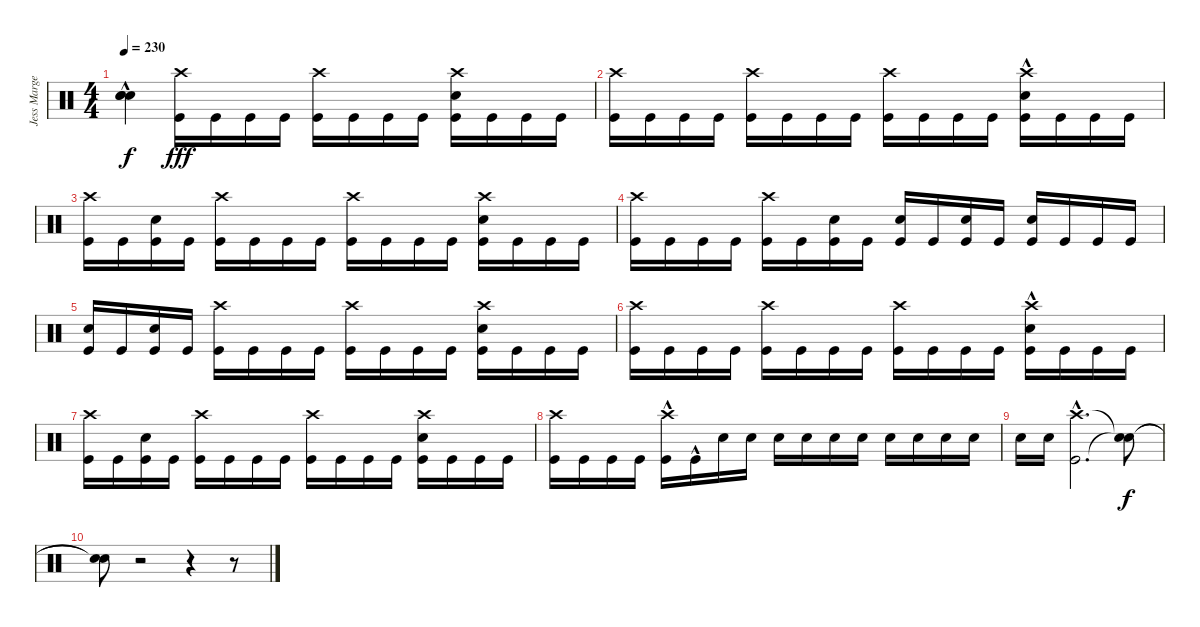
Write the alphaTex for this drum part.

\track ("Jess Margera (drums)" "Jess Marge") {instrument percussion}
\staff {score}
\articulation defaults
\ts (4 4)
\tempo 230
\clef neutral
\ks c
("Snare (hit)"{t} "Snare (hit)"{hac t} "Snare (hit)"{t}).4{dy f} ("Kick (hit)" "Crash high (hit)").16{dy fff} "Kick (hit)".16 "Kick (hit)".16 "Kick (hit)".16 ("Kick (hit)" "Crash high (hit)").16 "Kick (hit)".16 "Kick (hit)".16 "Kick (hit)".16 ("Kick (hit)" "Snare (hit) 2" "Crash high (hit)").16 "Kick (hit)".16 "Kick (hit)".16 "Kick (hit)".16 |
("Kick (hit)" "Crash high (hit)").16 "Kick (hit)".16 "Kick (hit)".16 "Kick (hit)".16 ("Kick (hit)" "Crash high (hit)").16 "Kick (hit)".16 "Kick (hit)".16 "Kick (hit)".16 ("Kick (hit)" "Crash high (hit)").16 "Kick (hit)".16 "Kick (hit)".16 "Kick (hit)".16 ("Kick (hit)" "Snare (hit) 2"{hac} "Crash high (hit)").16 "Kick (hit)".16 "Kick (hit)".16 "Kick (hit)".16 |
("Kick (hit)" "Crash high (hit)").16 "Kick (hit)".16 ("Kick (hit)" "Snare (hit) 2").16 "Kick (hit)".16 ("Kick (hit)" "Crash high (hit)").16 "Kick (hit)".16 "Kick (hit)".16 "Kick (hit)".16 ("Kick (hit)" "Crash high (hit)").16 "Kick (hit)".16 "Kick (hit)".16 "Kick (hit)".16 ("Kick (hit)" "Snare (hit) 2" "Crash high (hit)").16 "Kick (hit)".16 "Kick (hit)".16 "Kick (hit)".16 |
("Kick (hit)" "Crash high (hit)").16 "Kick (hit)".16 "Kick (hit)".16 "Kick (hit)".16 ("Kick (hit)" "Crash high (hit)").16 "Kick (hit)".16 ("Kick (hit)" "Snare (hit) 2").16 "Kick (hit)".16 ("Kick (hit)" "Snare (hit) 2").16 "Kick (hit)".16 ("Kick (hit)" "Snare (hit) 2").16 "Kick (hit)".16 ("Kick (hit)" "Snare (hit) 2").16 "Kick (hit)".16 "Kick (hit)".16 "Kick (hit)".16 |
("Kick (hit)" "Snare (hit) 2").16 "Kick (hit)".16 ("Kick (hit)" "Snare (hit) 2").16 "Kick (hit)".16 ("Kick (hit)" "Crash high (hit)").16 "Kick (hit)".16 "Kick (hit)".16 "Kick (hit)".16 ("Kick (hit)" "Crash high (hit)").16 "Kick (hit)".16 "Kick (hit)".16 "Kick (hit)".16 ("Kick (hit)" "Snare (hit) 2" "Crash high (hit)").16 "Kick (hit)".16 "Kick (hit)".16 "Kick (hit)".16 |
("Kick (hit)" "Crash high (hit)").16 "Kick (hit)".16 "Kick (hit)".16 "Kick (hit)".16 ("Kick (hit)" "Crash high (hit)").16 "Kick (hit)".16 "Kick (hit)".16 "Kick (hit)".16 ("Kick (hit)" "Crash high (hit)").16 "Kick (hit)".16 "Kick (hit)".16 "Kick (hit)".16 ("Kick (hit)" "Snare (hit) 2"{hac} "Crash high (hit)").16 "Kick (hit)".16 "Kick (hit)".16 "Kick (hit)".16 |
("Kick (hit)" "Crash high (hit)").16 "Kick (hit)".16 ("Kick (hit)" "Snare (hit) 2").16 "Kick (hit)".16 ("Kick (hit)" "Crash high (hit)").16 "Kick (hit)".16 "Kick (hit)".16 "Kick (hit)".16 ("Kick (hit)" "Crash high (hit)").16 "Kick (hit)".16 "Kick (hit)".16 "Kick (hit)".16 ("Kick (hit)" "Snare (hit) 2" "Crash high (hit)").16 "Kick (hit)".16 "Kick (hit)".16 "Kick (hit)".16 |
("Kick (hit)" "Crash high (hit)").16 "Kick (hit)".16 "Kick (hit)".16 "Kick (hit)".16 ("Kick (hit)" "Crash high (hit)"{hac}).16 "Kick (hit)"{hac}.16 "Snare (hit) 2".16 "Snare (hit) 2".16 "Snare (hit) 2".16 "Snare (hit) 2".16 "Snare (hit) 2".16 "Snare (hit) 2".16 "Snare (hit) 2".16 "Snare (hit) 2".16 "Snare (hit) 2".16 "Snare (hit) 2".16 |
"Snare (hit) 2".16 "Snare (hit) 2".16 ("Kick (hit)"{hac} "Crash high (hit)"{hac}).2{d} ("Snare (hit)"{t} "Snare (hit)"{t}).8{dy f} |
("Snare (hit)"{t} "Snare (hit)"{t}).8 r.2 r.4 r.8
